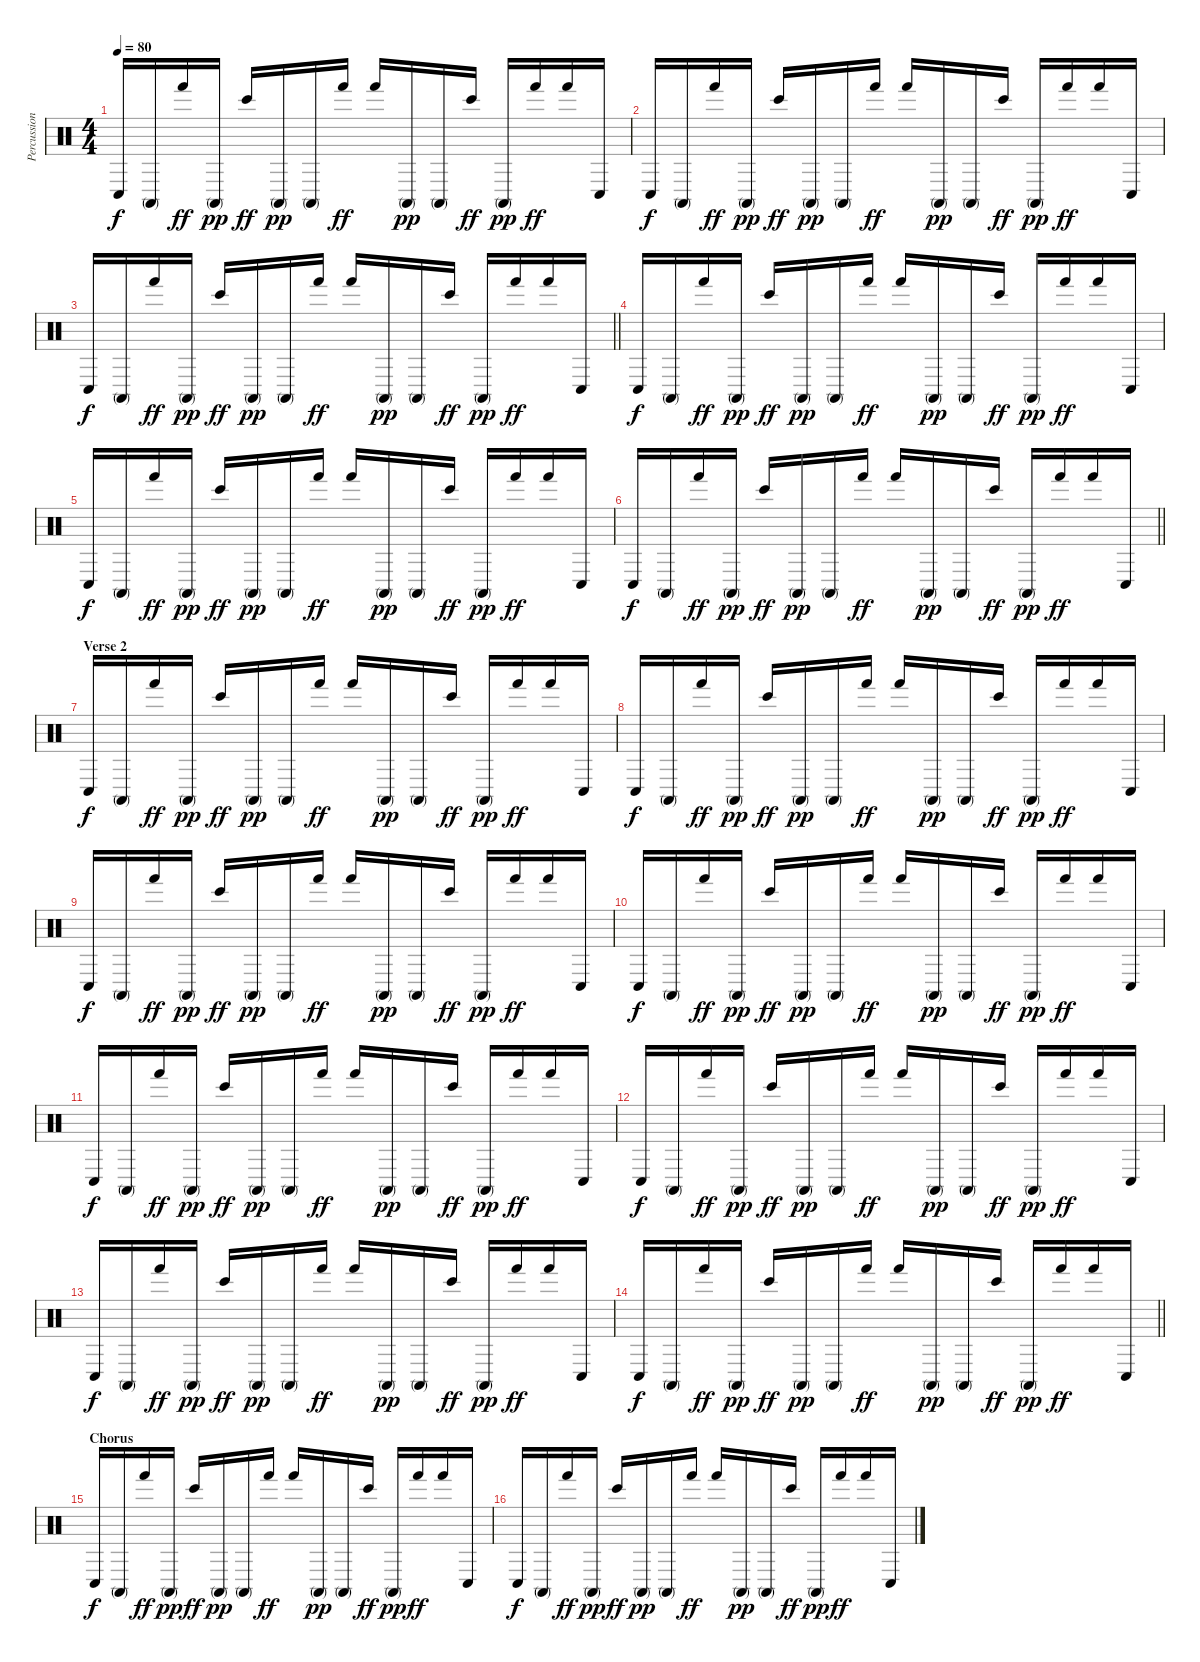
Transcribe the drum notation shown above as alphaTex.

\track ("Percussions" "Percussion") {instrument percussion}
\staff {score}
\articulation defaults
\ts (4 4)
\tempo 80
\clef neutral
\ks c "Conga low (hit)".16{dy f} "Conga high (mute)".16 "Hand (hit)".16{dy ff} "Conga high (mute)".16{dy pp} "Bongo High (hit)".16{dy ff} "Conga high (mute)".16{dy pp} "Conga high (mute)".16 "Hand (hit)".16{dy ff} "Hand (hit)".16 "Conga high (mute)".16{dy pp} "Conga high (mute)".16 "Bongo High (hit)".16{dy ff} "Conga high (mute)".16{dy pp} "Hand (hit)".16{dy ff} "Hand (hit)".16 "Conga low (hit)".16
|
"Conga low (hit)".16{dy f} "Conga high (mute)".16 "Hand (hit)".16{dy ff} "Conga high (mute)".16{dy pp} "Bongo High (hit)".16{dy ff} "Conga high (mute)".16{dy pp} "Conga high (mute)".16 "Hand (hit)".16{dy ff} "Hand (hit)".16 "Conga high (mute)".16{dy pp} "Conga high (mute)".16 "Bongo High (hit)".16{dy ff} "Conga high (mute)".16{dy pp} "Hand (hit)".16{dy ff} "Hand (hit)".16 "Conga low (hit)".16 |
\barLineRight lightlight "Conga low (hit)".16{dy f} "Conga high (mute)".16 "Hand (hit)".16{dy ff} "Conga high (mute)".16{dy pp} "Bongo High (hit)".16{dy ff} "Conga high (mute)".16{dy pp} "Conga high (mute)".16 "Hand (hit)".16{dy ff} "Hand (hit)".16 "Conga high (mute)".16{dy pp} "Conga high (mute)".16 "Bongo High (hit)".16{dy ff} "Conga high (mute)".16{dy pp} "Hand (hit)".16{dy ff} "Hand (hit)".16 "Conga low (hit)".16
|
"Conga low (hit)".16{dy f} "Conga high (mute)".16 "Hand (hit)".16{dy ff} "Conga high (mute)".16{dy pp} "Bongo High (hit)".16{dy ff} "Conga high (mute)".16{dy pp} "Conga high (mute)".16 "Hand (hit)".16{dy ff} "Hand (hit)".16 "Conga high (mute)".16{dy pp} "Conga high (mute)".16 "Bongo High (hit)".16{dy ff} "Conga high (mute)".16{dy pp} "Hand (hit)".16{dy ff} "Hand (hit)".16 "Conga low (hit)".16 |
"Conga low (hit)".16{dy f} "Conga high (mute)".16 "Hand (hit)".16{dy ff} "Conga high (mute)".16{dy pp} "Bongo High (hit)".16{dy ff} "Conga high (mute)".16{dy pp} "Conga high (mute)".16 "Hand (hit)".16{dy ff} "Hand (hit)".16 "Conga high (mute)".16{dy pp} "Conga high (mute)".16 "Bongo High (hit)".16{dy ff} "Conga high (mute)".16{dy pp} "Hand (hit)".16{dy ff} "Hand (hit)".16 "Conga low (hit)".16 |
\barLineRight lightlight "Conga low (hit)".16{dy f} "Conga high (mute)".16 "Hand (hit)".16{dy ff} "Conga high (mute)".16{dy pp} "Bongo High (hit)".16{dy ff} "Conga high (mute)".16{dy pp} "Conga high (mute)".16 "Hand (hit)".16{dy ff} "Hand (hit)".16 "Conga high (mute)".16{dy pp} "Conga high (mute)".16 "Bongo High (hit)".16{dy ff} "Conga high (mute)".16{dy pp} "Hand (hit)".16{dy ff} "Hand (hit)".16 "Conga low (hit)".16
|
\section ("" "Verse 2")
"Conga low (hit)".16{dy f} "Conga high (mute)".16 "Hand (hit)".16{dy ff} "Conga high (mute)".16{dy pp} "Bongo High (hit)".16{dy ff} "Conga high (mute)".16{dy pp} "Conga high (mute)".16 "Hand (hit)".16{dy ff} "Hand (hit)".16 "Conga high (mute)".16{dy pp} "Conga high (mute)".16 "Bongo High (hit)".16{dy ff} "Conga high (mute)".16{dy pp} "Hand (hit)".16{dy ff} "Hand (hit)".16 "Conga low (hit)".16 |
"Conga low (hit)".16{dy f} "Conga high (mute)".16 "Hand (hit)".16{dy ff} "Conga high (mute)".16{dy pp} "Bongo High (hit)".16{dy ff} "Conga high (mute)".16{dy pp} "Conga high (mute)".16 "Hand (hit)".16{dy ff} "Hand (hit)".16 "Conga high (mute)".16{dy pp} "Conga high (mute)".16 "Bongo High (hit)".16{dy ff} "Conga high (mute)".16{dy pp} "Hand (hit)".16{dy ff} "Hand (hit)".16 "Conga low (hit)".16 |
"Conga low (hit)".16{dy f} "Conga high (mute)".16 "Hand (hit)".16{dy ff} "Conga high (mute)".16{dy pp} "Bongo High (hit)".16{dy ff} "Conga high (mute)".16{dy pp} "Conga high (mute)".16 "Hand (hit)".16{dy ff} "Hand (hit)".16 "Conga high (mute)".16{dy pp} "Conga high (mute)".16 "Bongo High (hit)".16{dy ff} "Conga high (mute)".16{dy pp} "Hand (hit)".16{dy ff} "Hand (hit)".16 "Conga low (hit)".16 |
"Conga low (hit)".16{dy f} "Conga high (mute)".16 "Hand (hit)".16{dy ff} "Conga high (mute)".16{dy pp} "Bongo High (hit)".16{dy ff} "Conga high (mute)".16{dy pp} "Conga high (mute)".16 "Hand (hit)".16{dy ff} "Hand (hit)".16 "Conga high (mute)".16{dy pp} "Conga high (mute)".16 "Bongo High (hit)".16{dy ff} "Conga high (mute)".16{dy pp} "Hand (hit)".16{dy ff} "Hand (hit)".16 "Conga low (hit)".16 |
"Conga low (hit)".16{dy f} "Conga high (mute)".16 "Hand (hit)".16{dy ff} "Conga high (mute)".16{dy pp} "Bongo High (hit)".16{dy ff} "Conga high (mute)".16{dy pp} "Conga high (mute)".16 "Hand (hit)".16{dy ff} "Hand (hit)".16 "Conga high (mute)".16{dy pp} "Conga high (mute)".16 "Bongo High (hit)".16{dy ff} "Conga high (mute)".16{dy pp} "Hand (hit)".16{dy ff} "Hand (hit)".16 "Conga low (hit)".16 |
"Conga low (hit)".16{dy f} "Conga high (mute)".16 "Hand (hit)".16{dy ff} "Conga high (mute)".16{dy pp} "Bongo High (hit)".16{dy ff} "Conga high (mute)".16{dy pp} "Conga high (mute)".16 "Hand (hit)".16{dy ff} "Hand (hit)".16 "Conga high (mute)".16{dy pp} "Conga high (mute)".16 "Bongo High (hit)".16{dy ff} "Conga high (mute)".16{dy pp} "Hand (hit)".16{dy ff} "Hand (hit)".16 "Conga low (hit)".16 |
"Conga low (hit)".16{dy f} "Conga high (mute)".16 "Hand (hit)".16{dy ff} "Conga high (mute)".16{dy pp} "Bongo High (hit)".16{dy ff} "Conga high (mute)".16{dy pp} "Conga high (mute)".16 "Hand (hit)".16{dy ff} "Hand (hit)".16 "Conga high (mute)".16{dy pp} "Conga high (mute)".16 "Bongo High (hit)".16{dy ff} "Conga high (mute)".16{dy pp} "Hand (hit)".16{dy ff} "Hand (hit)".16 "Conga low (hit)".16 |
\barLineRight lightlight "Conga low (hit)".16{dy f} "Conga high (mute)".16 "Hand (hit)".16{dy ff} "Conga high (mute)".16{dy pp} "Bongo High (hit)".16{dy ff} "Conga high (mute)".16{dy pp} "Conga high (mute)".16 "Hand (hit)".16{dy ff} "Hand (hit)".16 "Conga high (mute)".16{dy pp} "Conga high (mute)".16 "Bongo High (hit)".16{dy ff} "Conga high (mute)".16{dy pp} "Hand (hit)".16{dy ff} "Hand (hit)".16 "Conga low (hit)".16
|
\section ("" "Chorus")
"Conga low (hit)".16{dy f} "Conga high (mute)".16 "Hand (hit)".16{dy ff} "Conga high (mute)".16{dy pp} "Bongo High (hit)".16{dy ff} "Conga high (mute)".16{dy pp} "Conga high (mute)".16 "Hand (hit)".16{dy ff} "Hand (hit)".16 "Conga high (mute)".16{dy pp} "Conga high (mute)".16 "Bongo High (hit)".16{dy ff} "Conga high (mute)".16{dy pp} "Hand (hit)".16{dy ff} "Hand (hit)".16 "Conga low (hit)".16 |
"Conga low (hit)".16{dy f} "Conga high (mute)".16 "Hand (hit)".16{dy ff} "Conga high (mute)".16{dy pp} "Bongo High (hit)".16{dy ff} "Conga high (mute)".16{dy pp} "Conga high (mute)".16 "Hand (hit)".16{dy ff} "Hand (hit)".16 "Conga high (mute)".16{dy pp} "Conga high (mute)".16 "Bongo High (hit)".16{dy ff} "Conga high (mute)".16{dy pp} "Hand (hit)".16{dy ff} "Hand (hit)".16 "Conga low (hit)".16
